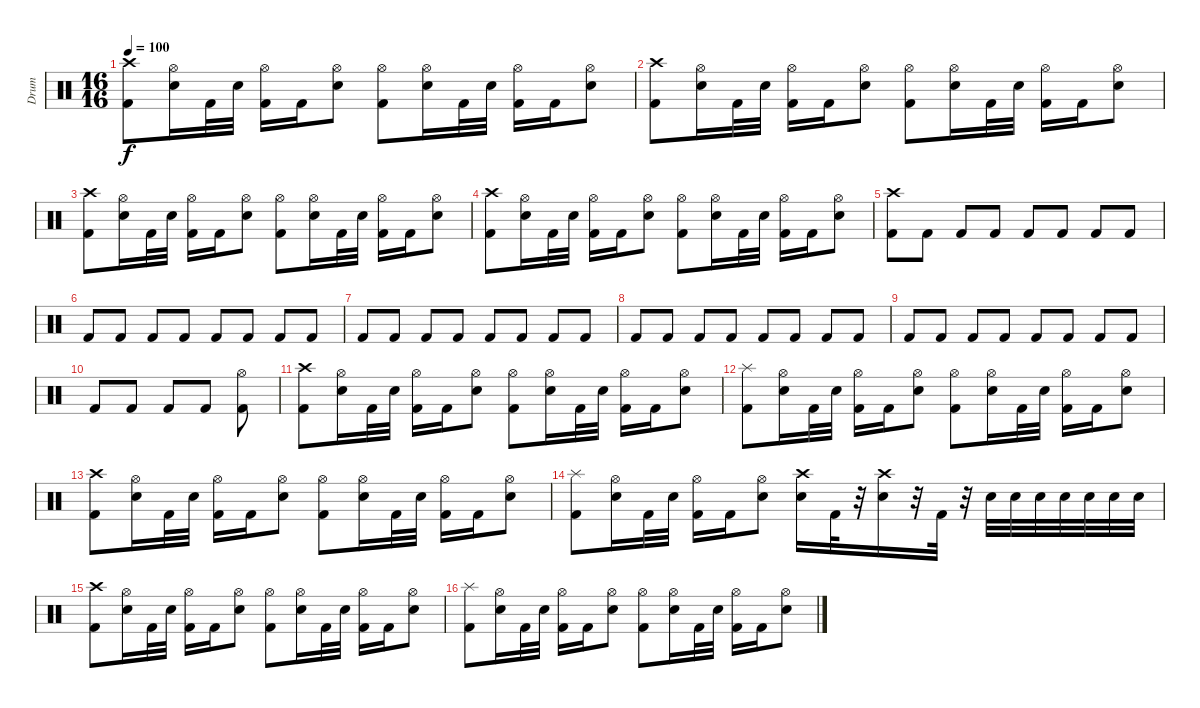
\track ("Drum" "Drum") {instrument percussion}
\staff {score}
\articulation defaults
\ts (16 16)
\tempo 100
\clef neutral
\ks aminor
("Crash high (hit)" "Kick (hit) 2").8{dy f} ("Hi-Hat (open)" "Snare (hit) 2").16 "Kick (hit) 2".32 "Snare (hit) 2".32 ("Hi-Hat (open)" "Kick (hit) 2").16 "Kick (hit) 2".16 ("Hi-Hat (open)" "Snare (hit) 2").8 ("Hi-Hat (open)" "Kick (hit) 2").8 ("Hi-Hat (open)" "Snare (hit) 2").16 "Kick (hit) 2".32 "Snare (hit) 2".32 ("Hi-Hat (open)" "Kick (hit) 2").16 "Kick (hit) 2".16 ("Hi-Hat (open)" "Snare (hit) 2").8 |
("Crash high (hit)" "Kick (hit) 2").8 ("Hi-Hat (open)" "Snare (hit) 2").16 "Kick (hit) 2".32 "Snare (hit) 2".32 ("Hi-Hat (open)" "Kick (hit) 2").16 "Kick (hit) 2".16 ("Hi-Hat (open)" "Snare (hit) 2").8 ("Hi-Hat (open)" "Kick (hit) 2").8 ("Hi-Hat (open)" "Snare (hit) 2").16 "Kick (hit) 2".32 "Snare (hit) 2".32 ("Hi-Hat (open)" "Kick (hit) 2").16 "Kick (hit) 2".16 ("Hi-Hat (open)" "Snare (hit) 2").8 |
("Crash high (hit)" "Kick (hit) 2").8 ("Hi-Hat (open)" "Snare (hit) 2").16 "Kick (hit) 2".32 "Snare (hit) 2".32 ("Hi-Hat (open)" "Kick (hit) 2").16 "Kick (hit) 2".16 ("Hi-Hat (open)" "Snare (hit) 2").8 ("Hi-Hat (open)" "Kick (hit) 2").8 ("Hi-Hat (open)" "Snare (hit) 2").16 "Kick (hit) 2".32 "Snare (hit) 2".32 ("Hi-Hat (open)" "Kick (hit) 2").16 "Kick (hit) 2".16 ("Hi-Hat (open)" "Snare (hit) 2").8 |
("Crash high (hit)" "Kick (hit) 2").8 ("Hi-Hat (open)" "Snare (hit) 2").16 "Kick (hit) 2".32 "Snare (hit) 2".32 ("Hi-Hat (open)" "Kick (hit) 2").16 "Kick (hit) 2".16 ("Hi-Hat (open)" "Snare (hit) 2").8 ("Hi-Hat (open)" "Kick (hit) 2").8 ("Hi-Hat (open)" "Snare (hit) 2").16 "Kick (hit) 2".32 "Snare (hit) 2".32 ("Hi-Hat (open)" "Kick (hit) 2").16 "Kick (hit) 2".16 ("Hi-Hat (open)" "Snare (hit) 2").8 |
("Crash high (hit)" "Kick (hit) 2").8 "Kick (hit) 2".8 "Kick (hit) 2".8 "Kick (hit) 2".8 "Kick (hit) 2".8 "Kick (hit) 2".8 "Kick (hit) 2".8 "Kick (hit) 2".8 |
"Kick (hit) 2".8 "Kick (hit) 2".8 "Kick (hit) 2".8 "Kick (hit) 2".8 "Kick (hit) 2".8 "Kick (hit) 2".8 "Kick (hit) 2".8 "Kick (hit) 2".8 |
"Kick (hit) 2".8 "Kick (hit) 2".8 "Kick (hit) 2".8 "Kick (hit) 2".8 "Kick (hit) 2".8 "Kick (hit) 2".8 "Kick (hit) 2".8 "Kick (hit) 2".8 |
"Kick (hit) 2".8 "Kick (hit) 2".8 "Kick (hit) 2".8 "Kick (hit) 2".8 "Kick (hit) 2".8 "Kick (hit) 2".8 "Kick (hit) 2".8 "Kick (hit) 2".8 |
"Kick (hit) 2".8 "Kick (hit) 2".8 "Kick (hit) 2".8 "Kick (hit) 2".8 "Kick (hit) 2".8 "Kick (hit) 2".8 "Kick (hit) 2".8 "Kick (hit) 2".8 |
"Kick (hit) 2".8 "Kick (hit) 2".8 "Kick (hit) 2".8 "Kick (hit) 2".8 ("Hi-Hat (open)" "Kick (hit) 2").8 |
("Crash high (hit)" "Kick (hit) 2").8 ("Hi-Hat (open)" "Snare (hit) 2").16 "Kick (hit) 2".32 "Snare (hit) 2".32 ("Hi-Hat (open)" "Kick (hit) 2").16 "Kick (hit) 2".16 ("Hi-Hat (open)" "Snare (hit) 2").8 ("Hi-Hat (open)" "Kick (hit) 2").8 ("Hi-Hat (open)" "Snare (hit) 2").16 "Kick (hit) 2".32 "Snare (hit) 2".32 ("Hi-Hat (open)" "Kick (hit) 2").16 "Kick (hit) 2".16 ("Hi-Hat (open)" "Snare (hit) 2").8 |
("Splash (hit)" "Kick (hit) 2").8 ("Hi-Hat (open)" "Snare (hit) 2").16 "Kick (hit) 2".32 "Snare (hit) 2".32 ("Hi-Hat (open)" "Kick (hit) 2").16 "Kick (hit) 2".16 ("Hi-Hat (open)" "Snare (hit) 2").8 ("Hi-Hat (open)" "Kick (hit) 2").8 ("Hi-Hat (open)" "Snare (hit) 2").16 "Kick (hit) 2".32 "Snare (hit) 2".32 ("Hi-Hat (open)" "Kick (hit) 2").16 "Kick (hit) 2".16 ("Hi-Hat (open)" "Snare (hit) 2").8 |
("Crash high (hit)" "Kick (hit) 2").8 ("Hi-Hat (open)" "Snare (hit) 2").16 "Kick (hit) 2".32 "Snare (hit) 2".32 ("Hi-Hat (open)" "Kick (hit) 2").16 "Kick (hit) 2".16 ("Hi-Hat (open)" "Snare (hit) 2").8 ("Hi-Hat (open)" "Kick (hit) 2").8 ("Hi-Hat (open)" "Snare (hit) 2").16 "Kick (hit) 2".32 "Snare (hit) 2".32 ("Hi-Hat (open)" "Kick (hit) 2").16 "Kick (hit) 2".16 ("Hi-Hat (open)" "Snare (hit) 2").8 |
("Splash (hit)" "Kick (hit) 2").8 ("Hi-Hat (open)" "Snare (hit) 2").16 "Kick (hit) 2".32 "Snare (hit) 2".32 ("Hi-Hat (open)" "Kick (hit) 2").16 "Kick (hit) 2".16 ("Hi-Hat (open)" "Snare (hit) 2").8 ("Crash high (hit)" "Snare (hit) 2").16 "Kick (hit) 2".32 r.32 ("Crash high (hit)" "Snare (hit) 2").16 r.32 "Kick (hit) 2".32 r.32 "Snare (hit) 2".32 "Snare (hit) 2".32 "Snare (hit) 2".32 "Snare (hit) 2".32 "Snare (hit) 2".32 "Snare (hit) 2".32 "Snare (hit) 2".32 |
("Crash high (hit)" "Kick (hit) 2").8 ("Hi-Hat (open)" "Snare (hit) 2").16 "Kick (hit) 2".32 "Snare (hit) 2".32 ("Hi-Hat (open)" "Kick (hit) 2").16 "Kick (hit) 2".16 ("Hi-Hat (open)" "Snare (hit) 2").8 ("Hi-Hat (open)" "Kick (hit) 2").8 ("Hi-Hat (open)" "Snare (hit) 2").16 "Kick (hit) 2".32 "Snare (hit) 2".32 ("Hi-Hat (open)" "Kick (hit) 2").16 "Kick (hit) 2".16 ("Hi-Hat (open)" "Snare (hit) 2").8 |
("Splash (hit)" "Kick (hit) 2").8 ("Hi-Hat (open)" "Snare (hit) 2").16 "Kick (hit) 2".32 "Snare (hit) 2".32 ("Hi-Hat (open)" "Kick (hit) 2").16 "Kick (hit) 2".16 ("Hi-Hat (open)" "Snare (hit) 2").8 ("Hi-Hat (open)" "Kick (hit) 2").8 ("Hi-Hat (open)" "Snare (hit) 2").16 "Kick (hit) 2".32 "Snare (hit) 2".32 ("Hi-Hat (open)" "Kick (hit) 2").16 "Kick (hit) 2".16 ("Hi-Hat (open)" "Snare (hit) 2").8
